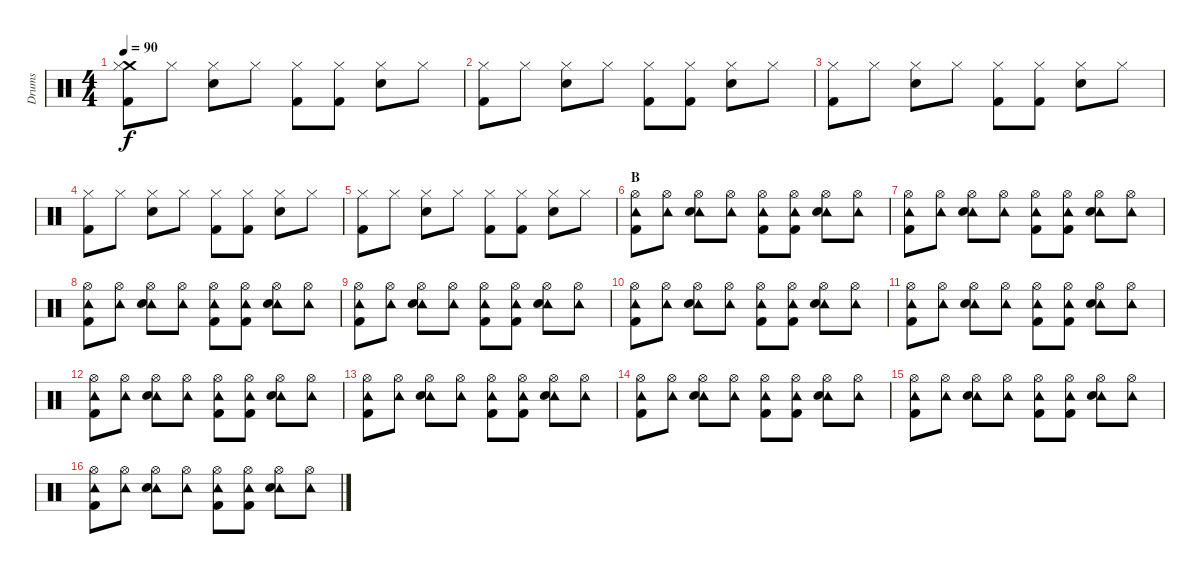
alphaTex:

\track ("Drums" "Drums") {instrument percussion}
\staff {score}
\articulation defaults
\ts (4 4)
\tempo 90
\clef neutral
\ks c
("Crash medium (hit)" "Hi-Hat (closed)" "Kick (hit) 2").8{dy f} "Hi-Hat (closed)".8 ("Hi-Hat (closed)" "Snare (hit) 2").8 "Hi-Hat (closed)".8 ("Hi-Hat (closed)" "Kick (hit) 2").8 ("Hi-Hat (closed)" "Kick (hit) 2").8 ("Hi-Hat (closed)" "Snare (hit) 2").8 "Hi-Hat (closed)".8 |
("Hi-Hat (closed)" "Kick (hit) 2").8 "Hi-Hat (closed)".8 ("Hi-Hat (closed)" "Snare (hit) 2").8 "Hi-Hat (closed)".8 ("Hi-Hat (closed)" "Kick (hit) 2").8 ("Hi-Hat (closed)" "Kick (hit) 2").8 ("Hi-Hat (closed)" "Snare (hit) 2").8 "Hi-Hat (closed)".8 |
("Hi-Hat (closed)" "Kick (hit) 2").8 "Hi-Hat (closed)".8 ("Hi-Hat (closed)" "Snare (hit) 2").8 "Hi-Hat (closed)".8 ("Hi-Hat (closed)" "Kick (hit) 2").8 ("Hi-Hat (closed)" "Kick (hit) 2").8 ("Hi-Hat (closed)" "Snare (hit) 2").8 "Hi-Hat (closed)".8 |
("Hi-Hat (closed)" "Kick (hit) 2").8 "Hi-Hat (closed)".8 ("Hi-Hat (closed)" "Snare (hit) 2").8 "Hi-Hat (closed)".8 ("Hi-Hat (closed)" "Kick (hit) 2").8 ("Hi-Hat (closed)" "Kick (hit) 2").8 ("Hi-Hat (closed)" "Snare (hit) 2").8 "Hi-Hat (closed)".8 |
("Hi-Hat (closed)" "Kick (hit) 2").8 "Hi-Hat (closed)".8 ("Hi-Hat (closed)" "Snare (hit) 2").8 "Hi-Hat (closed)".8 ("Hi-Hat (closed)" "Kick (hit) 2").8 ("Hi-Hat (closed)" "Kick (hit) 2").8 ("Hi-Hat (closed)" "Snare (hit) 2").8 "Hi-Hat (closed)".8 |
\section ("" "B")
("Tambourine (hit)" "Hi-Hat (open)" "Kick (hit) 2").8 ("Tambourine (hit)" "Hi-Hat (open)").8 ("Tambourine (hit)" "Hi-Hat (open)" "Snare (hit) 2").8 ("Tambourine (hit)" "Hi-Hat (open)").8 ("Tambourine (hit)" "Hi-Hat (open)" "Kick (hit) 2").8 ("Tambourine (hit)" "Hi-Hat (open)" "Kick (hit) 2").8 ("Tambourine (hit)" "Hi-Hat (open)" "Snare (hit) 2").8 ("Tambourine (hit)" "Hi-Hat (open)").8 |
("Tambourine (hit)" "Hi-Hat (open)" "Kick (hit) 2").8 ("Tambourine (hit)" "Hi-Hat (open)").8 ("Tambourine (hit)" "Hi-Hat (open)" "Snare (hit) 2").8 ("Tambourine (hit)" "Hi-Hat (open)").8 ("Tambourine (hit)" "Hi-Hat (open)" "Kick (hit) 2").8 ("Tambourine (hit)" "Hi-Hat (open)" "Kick (hit) 2").8 ("Tambourine (hit)" "Hi-Hat (open)" "Snare (hit) 2").8 ("Tambourine (hit)" "Hi-Hat (open)").8 |
("Tambourine (hit)" "Hi-Hat (open)" "Kick (hit) 2").8 ("Tambourine (hit)" "Hi-Hat (open)").8 ("Tambourine (hit)" "Hi-Hat (open)" "Snare (hit) 2").8 ("Tambourine (hit)" "Hi-Hat (open)").8 ("Tambourine (hit)" "Hi-Hat (open)" "Kick (hit) 2").8 ("Tambourine (hit)" "Hi-Hat (open)" "Kick (hit) 2").8 ("Tambourine (hit)" "Hi-Hat (open)" "Snare (hit) 2").8 ("Tambourine (hit)" "Hi-Hat (open)").8 |
("Tambourine (hit)" "Hi-Hat (open)" "Kick (hit) 2").8 ("Tambourine (hit)" "Hi-Hat (open)").8 ("Tambourine (hit)" "Hi-Hat (open)" "Snare (hit) 2").8 ("Tambourine (hit)" "Hi-Hat (open)").8 ("Tambourine (hit)" "Hi-Hat (open)" "Kick (hit) 2").8 ("Tambourine (hit)" "Hi-Hat (open)" "Kick (hit) 2").8 ("Tambourine (hit)" "Hi-Hat (open)" "Snare (hit) 2").8 ("Tambourine (hit)" "Hi-Hat (open)").8 |
("Tambourine (hit)" "Hi-Hat (open)" "Kick (hit) 2").8 ("Tambourine (hit)" "Hi-Hat (open)").8 ("Tambourine (hit)" "Hi-Hat (open)" "Snare (hit) 2").8 ("Tambourine (hit)" "Hi-Hat (open)").8 ("Tambourine (hit)" "Hi-Hat (open)" "Kick (hit) 2").8 ("Tambourine (hit)" "Hi-Hat (open)" "Kick (hit) 2").8 ("Tambourine (hit)" "Hi-Hat (open)" "Snare (hit) 2").8 ("Tambourine (hit)" "Hi-Hat (open)").8 |
("Tambourine (hit)" "Hi-Hat (open)" "Kick (hit) 2").8 ("Tambourine (hit)" "Hi-Hat (open)").8 ("Tambourine (hit)" "Hi-Hat (open)" "Snare (hit) 2").8 ("Tambourine (hit)" "Hi-Hat (open)").8 ("Tambourine (hit)" "Hi-Hat (open)" "Kick (hit) 2").8 ("Tambourine (hit)" "Hi-Hat (open)" "Kick (hit) 2").8 ("Tambourine (hit)" "Hi-Hat (open)" "Snare (hit) 2").8 ("Tambourine (hit)" "Hi-Hat (open)").8 |
("Tambourine (hit)" "Hi-Hat (open)" "Kick (hit) 2").8 ("Tambourine (hit)" "Hi-Hat (open)").8 ("Tambourine (hit)" "Hi-Hat (open)" "Snare (hit) 2").8 ("Tambourine (hit)" "Hi-Hat (open)").8 ("Tambourine (hit)" "Hi-Hat (open)" "Kick (hit) 2").8 ("Tambourine (hit)" "Hi-Hat (open)" "Kick (hit) 2").8 ("Tambourine (hit)" "Hi-Hat (open)" "Snare (hit) 2").8 ("Tambourine (hit)" "Hi-Hat (open)").8 |
("Tambourine (hit)" "Hi-Hat (open)" "Kick (hit) 2").8 ("Tambourine (hit)" "Hi-Hat (open)").8 ("Tambourine (hit)" "Hi-Hat (open)" "Snare (hit) 2").8 ("Tambourine (hit)" "Hi-Hat (open)").8 ("Tambourine (hit)" "Hi-Hat (open)" "Kick (hit) 2").8 ("Tambourine (hit)" "Hi-Hat (open)" "Kick (hit) 2").8 ("Tambourine (hit)" "Hi-Hat (open)" "Snare (hit) 2").8 ("Tambourine (hit)" "Hi-Hat (open)").8 |
("Tambourine (hit)" "Hi-Hat (open)" "Kick (hit) 2").8 ("Tambourine (hit)" "Hi-Hat (open)").8 ("Tambourine (hit)" "Hi-Hat (open)" "Snare (hit) 2").8 ("Tambourine (hit)" "Hi-Hat (open)").8 ("Tambourine (hit)" "Hi-Hat (open)" "Kick (hit) 2").8 ("Tambourine (hit)" "Hi-Hat (open)" "Kick (hit) 2").8 ("Tambourine (hit)" "Hi-Hat (open)" "Snare (hit) 2").8 ("Tambourine (hit)" "Hi-Hat (open)").8 |
("Tambourine (hit)" "Hi-Hat (open)" "Kick (hit) 2").8 ("Tambourine (hit)" "Hi-Hat (open)").8 ("Tambourine (hit)" "Hi-Hat (open)" "Snare (hit) 2").8 ("Tambourine (hit)" "Hi-Hat (open)").8 ("Tambourine (hit)" "Hi-Hat (open)" "Kick (hit) 2").8 ("Tambourine (hit)" "Hi-Hat (open)" "Kick (hit) 2").8 ("Tambourine (hit)" "Hi-Hat (open)" "Snare (hit) 2").8 ("Tambourine (hit)" "Hi-Hat (open)").8 |
("Tambourine (hit)" "Hi-Hat (open)" "Kick (hit) 2").8 ("Tambourine (hit)" "Hi-Hat (open)").8 ("Tambourine (hit)" "Hi-Hat (open)" "Snare (hit) 2").8 ("Tambourine (hit)" "Hi-Hat (open)").8 ("Tambourine (hit)" "Hi-Hat (open)" "Kick (hit) 2").8 ("Tambourine (hit)" "Hi-Hat (open)" "Kick (hit) 2").8 ("Tambourine (hit)" "Hi-Hat (open)" "Snare (hit) 2").8 ("Tambourine (hit)" "Hi-Hat (open)").8
